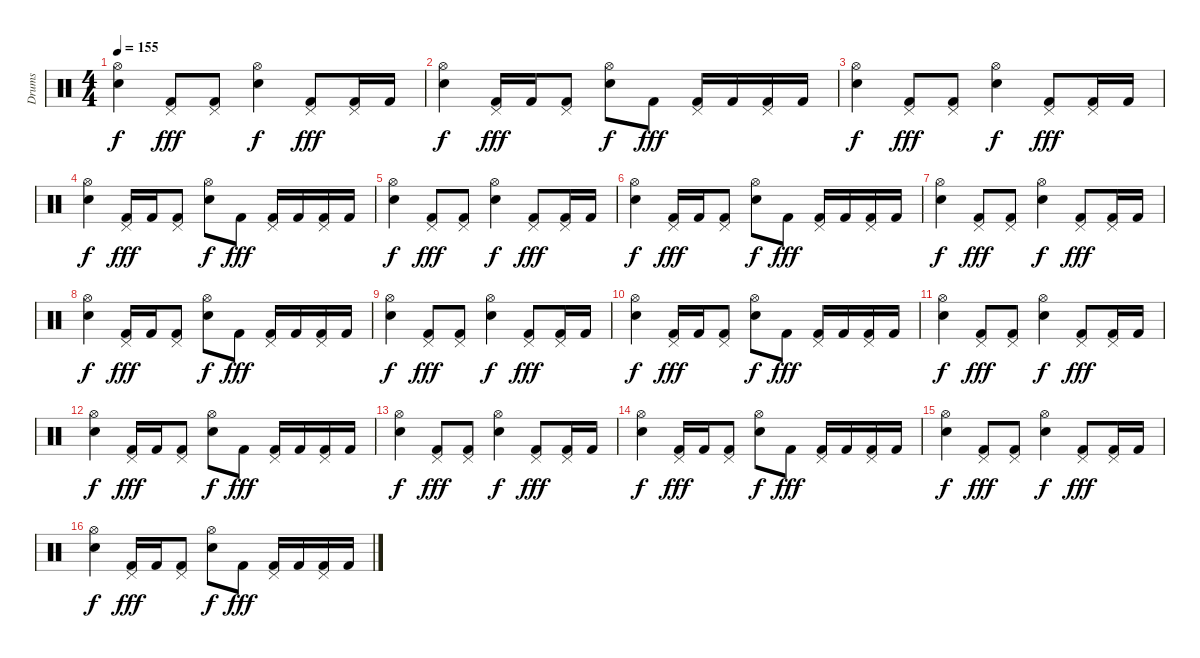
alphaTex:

\track ("Drums" "Drums") {instrument percussion}
\staff {score}
\articulation defaults
\ts (4 4)
\tempo 155
\clef neutral
\ks c
("Hi-Hat (open)" "Electric Snare (hit)").4{dy f} ("Pedal Hi-Hat (hit)" "Kick (hit) 2").8{dy fff} ("Pedal Hi-Hat (hit)" "Kick (hit) 2").8 ("Hi-Hat (open)" "Electric Snare (hit)").4{dy f} ("Pedal Hi-Hat (hit)" "Kick (hit) 2").8{dy fff} ("Pedal Hi-Hat (hit)" "Kick (hit) 2").16 "Kick (hit) 2".16 |
("Hi-Hat (open)" "Electric Snare (hit)").4{dy f} ("Pedal Hi-Hat (hit)" "Kick (hit) 2").16{dy fff} "Kick (hit) 2".16 ("Pedal Hi-Hat (hit)" "Kick (hit) 2").8 ("Hi-Hat (open)" "Electric Snare (hit)").8{dy f} "Kick (hit) 2".8{dy fff} ("Pedal Hi-Hat (hit)" "Kick (hit) 2").16 "Kick (hit) 2".16 ("Pedal Hi-Hat (hit)" "Kick (hit) 2").16 "Kick (hit) 2".16 |
("Hi-Hat (open)" "Electric Snare (hit)").4{dy f} ("Pedal Hi-Hat (hit)" "Kick (hit) 2").8{dy fff} ("Pedal Hi-Hat (hit)" "Kick (hit) 2").8 ("Hi-Hat (open)" "Electric Snare (hit)").4{dy f} ("Pedal Hi-Hat (hit)" "Kick (hit) 2").8{dy fff} ("Pedal Hi-Hat (hit)" "Kick (hit) 2").16 "Kick (hit) 2".16 |
("Hi-Hat (open)" "Electric Snare (hit)").4{dy f} ("Pedal Hi-Hat (hit)" "Kick (hit) 2").16{dy fff} "Kick (hit) 2".16 ("Pedal Hi-Hat (hit)" "Kick (hit) 2").8 ("Hi-Hat (open)" "Electric Snare (hit)").8{dy f} "Kick (hit) 2".8{dy fff} ("Pedal Hi-Hat (hit)" "Kick (hit) 2").16 "Kick (hit) 2".16 ("Pedal Hi-Hat (hit)" "Kick (hit) 2").16 "Kick (hit) 2".16 |
("Hi-Hat (open)" "Electric Snare (hit)").4{dy f} ("Pedal Hi-Hat (hit)" "Kick (hit) 2").8{dy fff} ("Pedal Hi-Hat (hit)" "Kick (hit) 2").8 ("Hi-Hat (open)" "Electric Snare (hit)").4{dy f} ("Pedal Hi-Hat (hit)" "Kick (hit) 2").8{dy fff} ("Pedal Hi-Hat (hit)" "Kick (hit) 2").16 "Kick (hit) 2".16 |
("Hi-Hat (open)" "Electric Snare (hit)").4{dy f} ("Pedal Hi-Hat (hit)" "Kick (hit) 2").16{dy fff} "Kick (hit) 2".16 ("Pedal Hi-Hat (hit)" "Kick (hit) 2").8 ("Hi-Hat (open)" "Electric Snare (hit)").8{dy f} "Kick (hit) 2".8{dy fff} ("Pedal Hi-Hat (hit)" "Kick (hit) 2").16 "Kick (hit) 2".16 ("Pedal Hi-Hat (hit)" "Kick (hit) 2").16 "Kick (hit) 2".16 |
("Hi-Hat (open)" "Electric Snare (hit)").4{dy f} ("Pedal Hi-Hat (hit)" "Kick (hit) 2").8{dy fff} ("Pedal Hi-Hat (hit)" "Kick (hit) 2").8 ("Hi-Hat (open)" "Electric Snare (hit)").4{dy f} ("Pedal Hi-Hat (hit)" "Kick (hit) 2").8{dy fff} ("Pedal Hi-Hat (hit)" "Kick (hit) 2").16 "Kick (hit) 2".16 |
("Hi-Hat (open)" "Electric Snare (hit)").4{dy f} ("Pedal Hi-Hat (hit)" "Kick (hit) 2").16{dy fff} "Kick (hit) 2".16 ("Pedal Hi-Hat (hit)" "Kick (hit) 2").8 ("Hi-Hat (open)" "Electric Snare (hit)").8{dy f} "Kick (hit) 2".8{dy fff} ("Pedal Hi-Hat (hit)" "Kick (hit) 2").16 "Kick (hit) 2".16 ("Pedal Hi-Hat (hit)" "Kick (hit) 2").16 "Kick (hit) 2".16 |
("Hi-Hat (open)" "Electric Snare (hit)").4{dy f} ("Pedal Hi-Hat (hit)" "Kick (hit) 2").8{dy fff} ("Pedal Hi-Hat (hit)" "Kick (hit) 2").8 ("Hi-Hat (open)" "Electric Snare (hit)").4{dy f} ("Pedal Hi-Hat (hit)" "Kick (hit) 2").8{dy fff} ("Pedal Hi-Hat (hit)" "Kick (hit) 2").16 "Kick (hit) 2".16 |
("Hi-Hat (open)" "Electric Snare (hit)").4{dy f} ("Pedal Hi-Hat (hit)" "Kick (hit) 2").16{dy fff} "Kick (hit) 2".16 ("Pedal Hi-Hat (hit)" "Kick (hit) 2").8 ("Hi-Hat (open)" "Electric Snare (hit)").8{dy f} "Kick (hit) 2".8{dy fff} ("Pedal Hi-Hat (hit)" "Kick (hit) 2").16 "Kick (hit) 2".16 ("Pedal Hi-Hat (hit)" "Kick (hit) 2").16 "Kick (hit) 2".16 |
("Hi-Hat (open)" "Electric Snare (hit)").4{dy f} ("Pedal Hi-Hat (hit)" "Kick (hit) 2").8{dy fff} ("Pedal Hi-Hat (hit)" "Kick (hit) 2").8 ("Hi-Hat (open)" "Electric Snare (hit)").4{dy f} ("Pedal Hi-Hat (hit)" "Kick (hit) 2").8{dy fff} ("Pedal Hi-Hat (hit)" "Kick (hit) 2").16 "Kick (hit) 2".16 |
("Hi-Hat (open)" "Electric Snare (hit)").4{dy f} ("Pedal Hi-Hat (hit)" "Kick (hit) 2").16{dy fff} "Kick (hit) 2".16 ("Pedal Hi-Hat (hit)" "Kick (hit) 2").8 ("Hi-Hat (open)" "Electric Snare (hit)").8{dy f} "Kick (hit) 2".8{dy fff} ("Pedal Hi-Hat (hit)" "Kick (hit) 2").16 "Kick (hit) 2".16 ("Pedal Hi-Hat (hit)" "Kick (hit) 2").16 "Kick (hit) 2".16 |
("Hi-Hat (open)" "Electric Snare (hit)").4{dy f} ("Pedal Hi-Hat (hit)" "Kick (hit) 2").8{dy fff} ("Pedal Hi-Hat (hit)" "Kick (hit) 2").8 ("Hi-Hat (open)" "Electric Snare (hit)").4{dy f} ("Pedal Hi-Hat (hit)" "Kick (hit) 2").8{dy fff} ("Pedal Hi-Hat (hit)" "Kick (hit) 2").16 "Kick (hit) 2".16 |
("Hi-Hat (open)" "Electric Snare (hit)").4{dy f} ("Pedal Hi-Hat (hit)" "Kick (hit) 2").16{dy fff} "Kick (hit) 2".16 ("Pedal Hi-Hat (hit)" "Kick (hit) 2").8 ("Hi-Hat (open)" "Electric Snare (hit)").8{dy f} "Kick (hit) 2".8{dy fff} ("Pedal Hi-Hat (hit)" "Kick (hit) 2").16 "Kick (hit) 2".16 ("Pedal Hi-Hat (hit)" "Kick (hit) 2").16 "Kick (hit) 2".16 |
("Hi-Hat (open)" "Electric Snare (hit)").4{dy f} ("Pedal Hi-Hat (hit)" "Kick (hit) 2").8{dy fff} ("Pedal Hi-Hat (hit)" "Kick (hit) 2").8 ("Hi-Hat (open)" "Electric Snare (hit)").4{dy f} ("Pedal Hi-Hat (hit)" "Kick (hit) 2").8{dy fff} ("Pedal Hi-Hat (hit)" "Kick (hit) 2").16 "Kick (hit) 2".16 |
("Hi-Hat (open)" "Electric Snare (hit)").4{dy f} ("Pedal Hi-Hat (hit)" "Kick (hit) 2").16{dy fff} "Kick (hit) 2".16 ("Pedal Hi-Hat (hit)" "Kick (hit) 2").8 ("Hi-Hat (open)" "Electric Snare (hit)").8{dy f} "Kick (hit) 2".8{dy fff} ("Pedal Hi-Hat (hit)" "Kick (hit) 2").16 "Kick (hit) 2".16 ("Pedal Hi-Hat (hit)" "Kick (hit) 2").16 "Kick (hit) 2".16
